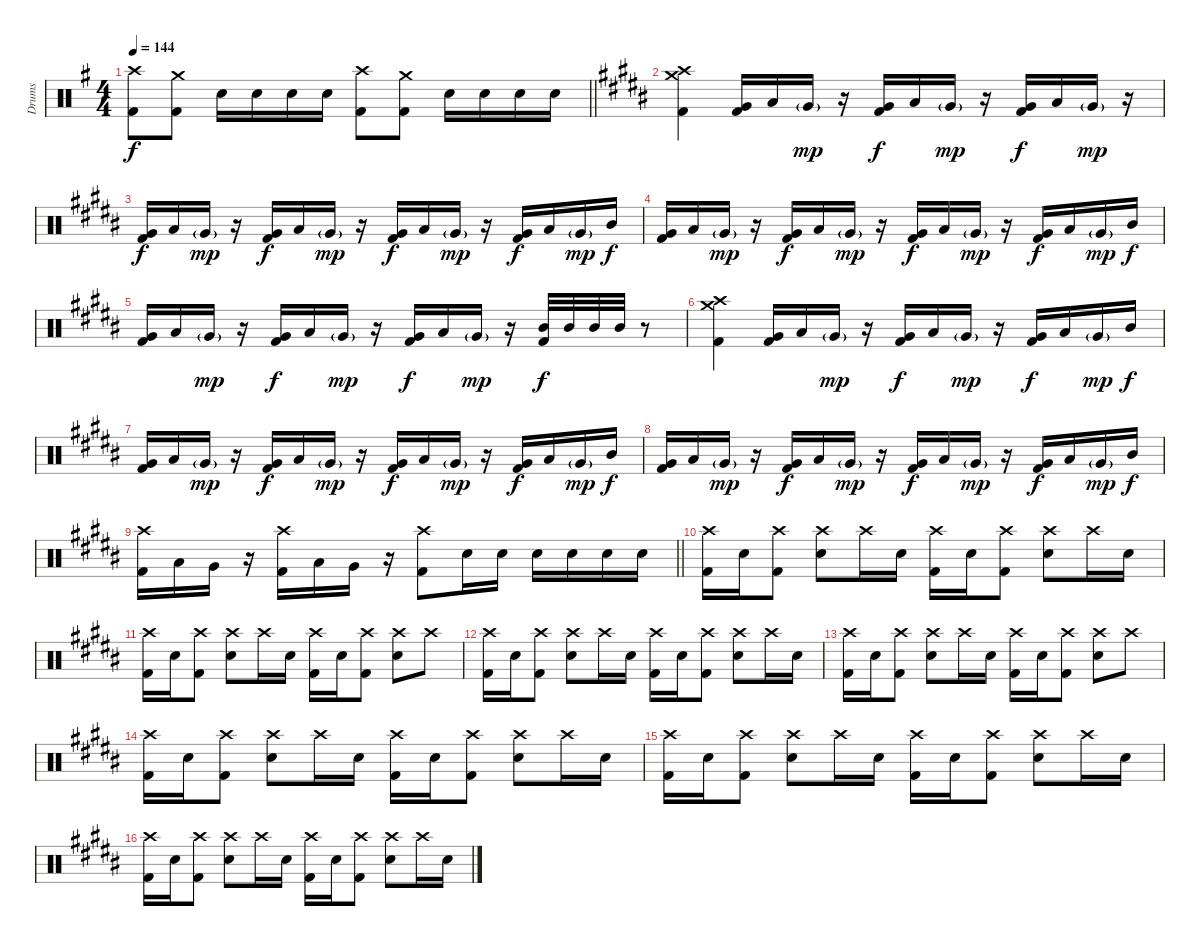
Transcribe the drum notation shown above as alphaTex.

\track ("Drums" "Drums") {instrument percussion}
\staff {score}
\articulation defaults
\ts (4 4)
\tempo 144
\clef neutral
\barLineRight lightlight
\ks eminor
("Crash high (hit)" "Kick (hit) 2").8{dy f} ("Crash medium (hit)" "Kick (hit) 2").8 "Snare (hit) 2".16 "Snare (hit) 2".16 "Snare (hit) 2".16 "Snare (hit) 2".16 ("Crash high (hit)" "Kick (hit) 2").8 ("Crash medium (hit)" "Kick (hit) 2").8 "Snare (hit) 2".16 "Snare (hit) 2".16 "Snare (hit) 2".16 "Snare (hit) 2".16 |
\ks g#minor
("Crash high (hit)" "Crash medium (hit)" "Kick (hit) 2").4 ("Very Low Tom (hit)" "Kick (hit) 2").16 "Low Tom (hit)".16 "Very Low Tom (hit)"{g}.16{dy mp} r.16 ("Very Low Tom (hit)" "Kick (hit) 2").16{dy f} "Low Tom (hit)".16 "Very Low Tom (hit)"{g}.16{dy mp} r.16 ("Very Low Tom (hit)" "Kick (hit) 2").16{dy f} "Low Tom (hit)".16 "Very Low Tom (hit)"{g}.16{dy mp} r.16 |
("Very Low Tom (hit)" "Kick (hit) 2").16{dy f} "Low Tom (hit)".16 "Very Low Tom (hit)"{g}.16{dy mp} r.16 ("Very Low Tom (hit)" "Kick (hit) 2").16{dy f} "Low Tom (hit)".16 "Very Low Tom (hit)"{g}.16{dy mp} r.16 ("Very Low Tom (hit)" "Kick (hit) 2").16{dy f} "Low Tom (hit)".16 "Very Low Tom (hit)"{g}.16{dy mp} r.16 ("Very Low Tom (hit)" "Kick (hit) 2").16{dy f} "Low Tom (hit)".16 "Very Low Tom (hit)"{g}.16{dy mp} "Mid Tom (hit)".16{dy f} |
("Very Low Tom (hit)" "Kick (hit) 2").16 "Low Tom (hit)".16 "Very Low Tom (hit)"{g}.16{dy mp} r.16 ("Very Low Tom (hit)" "Kick (hit) 2").16{dy f} "Low Tom (hit)".16 "Very Low Tom (hit)"{g}.16{dy mp} r.16 ("Very Low Tom (hit)" "Kick (hit) 2").16{dy f} "Low Tom (hit)".16 "Very Low Tom (hit)"{g}.16{dy mp} r.16 ("Very Low Tom (hit)" "Kick (hit) 2").16{dy f} "Low Tom (hit)".16 "Very Low Tom (hit)"{g}.16{dy mp} "Mid Tom (hit)".16{dy f} |
("Very Low Tom (hit)" "Kick (hit) 2").16 "Low Tom (hit)".16 "Very Low Tom (hit)"{g}.16{dy mp} r.16 ("Very Low Tom (hit)" "Kick (hit) 2").16{dy f} "Low Tom (hit)".16 "Very Low Tom (hit)"{g}.16{dy mp} r.16 ("Very Low Tom (hit)" "Kick (hit) 2").16{dy f} "Low Tom (hit)".16 "Very Low Tom (hit)"{g}.16{dy mp} r.16 ("Mid Tom (hit)" "Kick (hit) 2").32{dy f} "Mid Tom (hit)".32 "Mid Tom (hit)".32 "Mid Tom (hit)".32 r.8 |
("Crash high (hit)" "Crash medium (hit)" "Kick (hit) 2").4 ("Very Low Tom (hit)" "Kick (hit) 2").16 "Low Tom (hit)".16 "Very Low Tom (hit)"{g}.16{dy mp} r.16 ("Very Low Tom (hit)" "Kick (hit) 2").16{dy f} "Low Tom (hit)".16 "Very Low Tom (hit)"{g}.16{dy mp} r.16 ("Very Low Tom (hit)" "Kick (hit) 2").16{dy f} "Low Tom (hit)".16 "Very Low Tom (hit)"{g}.16{dy mp} "Mid Tom (hit)".16{dy f} |
("Very Low Tom (hit)" "Kick (hit) 2").16 "Low Tom (hit)".16 "Very Low Tom (hit)"{g}.16{dy mp} r.16 ("Very Low Tom (hit)" "Kick (hit) 2").16{dy f} "Low Tom (hit)".16 "Very Low Tom (hit)"{g}.16{dy mp} r.16 ("Very Low Tom (hit)" "Kick (hit) 2").16{dy f} "Low Tom (hit)".16 "Very Low Tom (hit)"{g}.16{dy mp} r.16 ("Very Low Tom (hit)" "Kick (hit) 2").16{dy f} "Low Tom (hit)".16 "Very Low Tom (hit)"{g}.16{dy mp} "Mid Tom (hit)".16{dy f} |
("Very Low Tom (hit)" "Kick (hit) 2").16 "Low Tom (hit)".16 "Very Low Tom (hit)"{g}.16{dy mp} r.16 ("Very Low Tom (hit)" "Kick (hit) 2").16{dy f} "Low Tom (hit)".16 "Very Low Tom (hit)"{g}.16{dy mp} r.16 ("Very Low Tom (hit)" "Kick (hit) 2").16{dy f} "Low Tom (hit)".16 "Very Low Tom (hit)"{g}.16{dy mp} r.16 ("Very Low Tom (hit)" "Kick (hit) 2").16{dy f} "Low Tom (hit)".16 "Very Low Tom (hit)"{g}.16{dy mp} "Mid Tom (hit)".16{dy f} |
\barLineRight lightlight
("Crash high (hit)" "Kick (hit) 2").16 "Low Tom (hit)".16 "Very Low Tom (hit)".16 r.16 ("Crash high (hit)" "Kick (hit) 2").16 "Low Tom (hit)".16 "Very Low Tom (hit)".16 r.16 ("Crash high (hit)" "Kick (hit) 2").8 "Snare (hit) 2".16 "Snare (hit) 2".16 "Snare (hit) 2".16 "Snare (hit) 2".16 "Snare (hit) 2".16 "Snare (hit) 2".16 |
("Crash high (hit)" "Kick (hit) 2").16 "Snare (hit) 2".16 ("Crash high (hit)" "Kick (hit) 2").8 ("Crash high (hit)" "Snare (hit) 2").8 "Crash high (hit)".16 "Snare (hit) 2".16 ("Crash high (hit)" "Kick (hit) 2").16 "Snare (hit) 2".16 ("Crash high (hit)" "Kick (hit) 2").8 ("Crash high (hit)" "Snare (hit) 2").8 "Crash high (hit)".16 "Snare (hit) 2".16 |
("Crash high (hit)" "Kick (hit) 2").16 "Snare (hit) 2".16 ("Crash high (hit)" "Kick (hit) 2").8 ("Crash high (hit)" "Snare (hit) 2").8 "Crash high (hit)".16 "Snare (hit) 2".16 ("Crash high (hit)" "Kick (hit) 2").16 "Snare (hit) 2".16 ("Crash high (hit)" "Kick (hit) 2").8 ("Crash high (hit)" "Snare (hit) 2").8 "Crash high (hit)".8 |
("Crash high (hit)" "Kick (hit) 2").16 "Snare (hit) 2".16 ("Crash high (hit)" "Kick (hit) 2").8 ("Crash high (hit)" "Snare (hit) 2").8 "Crash high (hit)".16 "Snare (hit) 2".16 ("Crash high (hit)" "Kick (hit) 2").16 "Snare (hit) 2".16 ("Crash high (hit)" "Kick (hit) 2").8 ("Crash high (hit)" "Snare (hit) 2").8 "Crash high (hit)".16 "Snare (hit) 2".16 |
("Crash high (hit)" "Kick (hit) 2").16 "Snare (hit) 2".16 ("Crash high (hit)" "Kick (hit) 2").8 ("Crash high (hit)" "Snare (hit) 2").8 "Crash high (hit)".16 "Snare (hit) 2".16 ("Crash high (hit)" "Kick (hit) 2").16 "Snare (hit) 2".16 ("Crash high (hit)" "Kick (hit) 2").8 ("Crash high (hit)" "Snare (hit) 2").8 "Crash high (hit)".8 |
("Crash high (hit)" "Kick (hit) 2").16 "Snare (hit) 2".16 ("Crash high (hit)" "Kick (hit) 2").8 ("Crash high (hit)" "Snare (hit) 2").8 "Crash high (hit)".16 "Snare (hit) 2".16 ("Crash high (hit)" "Kick (hit) 2").16 "Snare (hit) 2".16 ("Crash high (hit)" "Kick (hit) 2").8 ("Crash high (hit)" "Snare (hit) 2").8 "Crash high (hit)".16 "Snare (hit) 2".16 |
("Crash high (hit)" "Kick (hit) 2").16 "Snare (hit) 2".16 ("Crash high (hit)" "Kick (hit) 2").8 ("Crash high (hit)" "Snare (hit) 2").8 "Crash high (hit)".16 "Snare (hit) 2".16 ("Crash high (hit)" "Kick (hit) 2").16 "Snare (hit) 2".16 ("Crash high (hit)" "Kick (hit) 2").8 ("Crash high (hit)" "Snare (hit) 2").8 "Crash high (hit)".16 "Snare (hit) 2".16 |
("Crash high (hit)" "Kick (hit) 2").16 "Snare (hit) 2".16 ("Crash high (hit)" "Kick (hit) 2").8 ("Crash high (hit)" "Snare (hit) 2").8 "Crash high (hit)".16 "Snare (hit) 2".16 ("Crash high (hit)" "Kick (hit) 2").16 "Snare (hit) 2".16 ("Crash high (hit)" "Kick (hit) 2").8 ("Crash high (hit)" "Snare (hit) 2").8 "Crash high (hit)".16 "Snare (hit) 2".16
